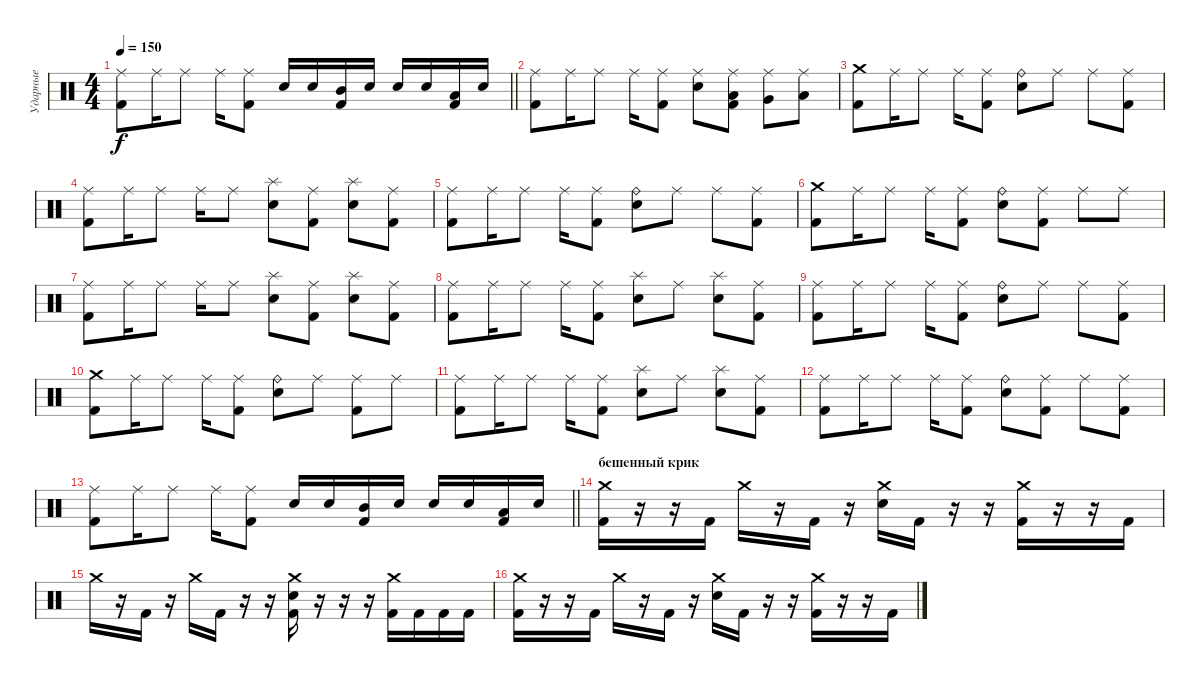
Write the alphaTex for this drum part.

\track ("Ударные" "Ударные") {instrument percussion}
\staff {score}
\articulation defaults
\ts (4 4)
\tempo 150
\clef neutral
\barLineRight lightlight
\ks c
("Ride (middle)" "Kick (hit) 2").8{dy f} "Ride (middle)".16 "Ride (middle)".8 "Ride (middle)".16 ("Ride (middle)" "Kick (hit) 2").8 "Electric Snare (hit)".16 "Electric Snare (hit)".16 ("Mid Tom (hit)" "Kick (hit) 2").16 "Electric Snare (hit)".16 "Electric Snare (hit)".16 "Electric Snare (hit)".16 ("Low Tom (hit)" "Kick (hit) 2").16 "Electric Snare (hit)".16 |
("Ride (middle)" "Kick (hit) 2").8 "Ride (middle)".16 "Ride (middle)".8 "Ride (middle)".16 ("Ride (middle)" "Kick (hit) 2").8 ("Ride (middle)" "Electric Snare (hit)").8 ("Ride (middle)" "Low Tom (hit)" "Kick (hit) 2").8 ("Ride (middle)" "Very Low Tom (hit)").8 ("Ride (middle)" "Low Floor Tom (hit)").8 |
("Crash medium (hit)" "Kick (hit) 2").8 "Ride (middle)".16 "Ride (middle)".8 "Ride (middle)".16 ("Ride (middle)" "Kick (hit) 2").8 ("Ride (bell)" "Electric Snare (hit)").8 "Ride (middle)".8 "Ride (middle)".8 ("Ride (middle)" "Kick (hit) 2").8 |
("Ride (middle)" "Kick (hit) 2").8 "Ride (middle)".16 "Ride (middle)".8 "Ride (middle)".16 "Ride (middle)".8 ("Splash (hit)" "Electric Snare (hit)").8 ("Ride (middle)" "Kick (hit) 2").8 ("Splash (hit)" "Electric Snare (hit)").8 ("Ride (middle)" "Kick (hit) 2").8 |
("Ride (middle)" "Kick (hit) 2").8 "Ride (middle)".16 "Ride (middle)".8 "Ride (middle)".16 ("Ride (middle)" "Kick (hit) 2").8 ("Ride (bell)" "Electric Snare (hit)").8 "Ride (middle)".8 "Ride (middle)".8 ("Ride (middle)" "Kick (hit) 2").8 |
("Crash medium (hit)" "Kick (hit) 2").8 "Ride (middle)".16 "Ride (middle)".8 "Ride (middle)".16 ("Ride (middle)" "Kick (hit) 2").8 ("Ride (bell)" "Electric Snare (hit)").8 ("Ride (middle)" "Kick (hit) 2").8 "Ride (middle)".8 "Ride (middle)".8 |
("Ride (middle)" "Kick (hit) 2").8 "Ride (middle)".16 "Ride (middle)".8 "Ride (middle)".16 "Ride (middle)".8 ("Splash (hit)" "Electric Snare (hit)").8 ("Ride (middle)" "Kick (hit) 2").8 ("Splash (hit)" "Electric Snare (hit)").8 ("Ride (middle)" "Kick (hit) 2").8 |
("Ride (middle)" "Kick (hit) 2").8 "Ride (middle)".16 "Ride (middle)".8 "Ride (middle)".16 ("Ride (middle)" "Kick (hit) 2").8 ("Splash (hit)" "Electric Snare (hit)").8 "Ride (middle)".8 ("Splash (hit)" "Electric Snare (hit)").8 ("Ride (middle)" "Kick (hit) 2").8 |
("Ride (middle)" "Kick (hit) 2").8 "Ride (middle)".16 "Ride (middle)".8 "Ride (middle)".16 ("Ride (middle)" "Kick (hit) 2").8 ("Ride (bell)" "Electric Snare (hit)").8 "Ride (middle)".8 "Ride (middle)".8 ("Ride (middle)" "Kick (hit) 2").8 |
("Crash medium (hit)" "Kick (hit) 2").8 "Ride (middle)".16 "Ride (middle)".8 "Ride (middle)".16 ("Ride (middle)" "Kick (hit) 2").8 ("Ride (bell)" "Electric Snare (hit)").8 "Ride (middle)".8 ("Ride (middle)" "Kick (hit) 2").8 "Ride (middle)".8 |
("Ride (middle)" "Kick (hit) 2").8 "Ride (middle)".16 "Ride (middle)".8 "Ride (middle)".16 ("Ride (middle)" "Kick (hit) 2").8 ("Splash (hit)" "Electric Snare (hit)").8 "Ride (middle)".8 ("Splash (hit)" "Electric Snare (hit)").8 ("Ride (middle)" "Kick (hit) 2").8 |
("Ride (middle)" "Kick (hit) 2").8 "Ride (middle)".16 "Ride (middle)".8 "Ride (middle)".16 ("Ride (middle)" "Kick (hit) 2").8 ("Ride (bell)" "Electric Snare (hit)").8 ("Ride (middle)" "Kick (hit) 2").8 "Ride (middle)".8 ("Ride (middle)" "Kick (hit) 2").8 |
\barLineRight lightlight
("Ride (middle)" "Kick (hit) 2").8 "Ride (middle)".16 "Ride (middle)".8 "Ride (middle)".16 ("Ride (middle)" "Kick (hit) 2").8 "Electric Snare (hit)".16 "Electric Snare (hit)".16 ("Mid Tom (hit)" "Kick (hit) 2").16 "Electric Snare (hit)".16 "Electric Snare (hit)".16 "Electric Snare (hit)".16 ("Low Tom (hit)" "Kick (hit) 2").16 "Electric Snare (hit)".16 |
\section ("" "бешенный крик")
("Crash medium (hit)" "Kick (hit) 2").16 r.16 r.16 "Kick (hit) 2".16 "Crash medium (hit)".16 r.16 "Kick (hit) 2".16 r.16 ("Crash medium (hit)" "Electric Snare (hit)").16 "Kick (hit) 2".16 r.16 r.16 ("Crash medium (hit)" "Kick (hit) 2").16 r.16 r.16 "Kick (hit) 2".16 |
"Crash medium (hit)".16 r.16 "Kick (hit) 2".16 r.16 "Crash medium (hit)".16 "Kick (hit) 2".16 r.16 r.16 ("Crash medium (hit)" "Electric Snare (hit)" "Kick (hit) 2").16 r.16 r.16 r.16 ("Crash medium (hit)" "Kick (hit) 2").16 "Kick (hit) 2".16 "Kick (hit) 2".16 "Kick (hit) 2".16 |
("Crash medium (hit)" "Kick (hit) 2").16 r.16 r.16 "Kick (hit) 2".16 "Crash medium (hit)".16 r.16 "Kick (hit) 2".16 r.16 ("Crash medium (hit)" "Electric Snare (hit)").16 "Kick (hit) 2".16 r.16 r.16 ("Crash medium (hit)" "Kick (hit) 2").16 r.16 r.16 "Kick (hit) 2".16
